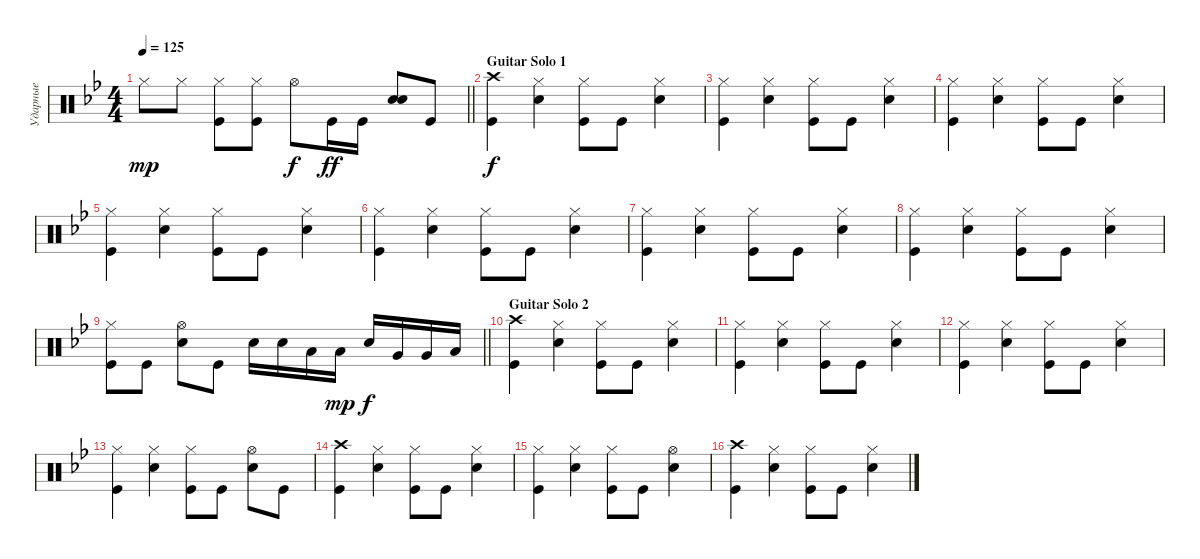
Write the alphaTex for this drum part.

\track ("Ударные" "Ударные") {instrument percussion}
\staff {score}
\articulation defaults
\ts (4 4)
\tempo 125
\clef neutral
\barLineRight lightlight
\ks gminor "Hi-Hat (closed)".8{dy mp} "Hi-Hat (closed)".8
("Hi-Hat (closed)" "Kick (hit)").8 ("Hi-Hat (closed)" "Kick (hit)").8 "Hi-Hat (open)".8{dy f} "Kick (hit)".16{dy ff} "Kick (hit)".16 ("Snare (hit) 2" "Snare (hit) 2").8{bd 240} "Kick (hit)".8 |
\section ("" "Guitar Solo 1")
("Kick (hit)" "Crash high (hit)").4{dy f} ("Hi-Hat (closed)" "Snare (hit) 2").4 ("Hi-Hat (closed)" "Kick (hit)").8 "Kick (hit)".8 ("Hi-Hat (closed)" "Snare (hit) 2").4 |
("Kick (hit)" "Hi-Hat (closed)").4 ("Hi-Hat (closed)" "Snare (hit) 2").4 ("Hi-Hat (closed)" "Kick (hit)").8 "Kick (hit)".8 ("Hi-Hat (closed)" "Snare (hit) 2").4 |
("Kick (hit)" "Hi-Hat (closed)").4 ("Hi-Hat (closed)" "Snare (hit) 2").4 ("Hi-Hat (closed)" "Kick (hit)").8 "Kick (hit)".8 ("Hi-Hat (closed)" "Snare (hit) 2").4 |
("Kick (hit)" "Hi-Hat (closed)").4 ("Hi-Hat (closed)" "Snare (hit) 2").4 ("Hi-Hat (closed)" "Kick (hit)").8 "Kick (hit)".8 ("Hi-Hat (closed)" "Snare (hit) 2").4 |
("Kick (hit)" "Hi-Hat (closed)").4 ("Hi-Hat (closed)" "Snare (hit) 2").4 ("Hi-Hat (closed)" "Kick (hit)").8 "Kick (hit)".8 ("Hi-Hat (closed)" "Snare (hit) 2").4 |
("Kick (hit)" "Hi-Hat (closed)").4 ("Hi-Hat (closed)" "Snare (hit) 2").4 ("Hi-Hat (closed)" "Kick (hit)").8 "Kick (hit)".8 ("Hi-Hat (closed)" "Snare (hit) 2").4 |
("Kick (hit)" "Hi-Hat (closed)").4 ("Hi-Hat (closed)" "Snare (hit) 2").4 ("Hi-Hat (closed)" "Kick (hit)").8 "Kick (hit)".8 ("Hi-Hat (closed)" "Snare (hit) 2").4 |
\barLineRight lightlight
("Kick (hit)" "Hi-Hat (closed)").8 "Kick (hit)".8 ("Snare (hit) 2" "Hi-Hat (open)").8 "Kick (hit)".8 "Snare (hit) 2".16 "Snare (hit) 2".16 "Low Tom (hit)".16 "Low Tom (hit)".16{dy mp} "Snare (hit) 2".16{dy f} "Very Low Tom (hit)".16 "Very Low Tom (hit)".16 "Low Floor Tom (hit)".16 |
\section ("" "Guitar Solo 2")
("Kick (hit)" "Crash high (hit)").4 ("Hi-Hat (closed)" "Snare (hit) 2").4 ("Hi-Hat (closed)" "Kick (hit)").8 "Kick (hit)".8 ("Hi-Hat (closed)" "Snare (hit) 2").4 |
("Kick (hit)" "Hi-Hat (closed)").4 ("Hi-Hat (closed)" "Snare (hit) 2").4 ("Hi-Hat (closed)" "Kick (hit)").8 "Kick (hit)".8 ("Hi-Hat (closed)" "Snare (hit) 2").4 |
("Kick (hit)" "Hi-Hat (closed)").4 ("Hi-Hat (closed)" "Snare (hit) 2").4 ("Hi-Hat (closed)" "Kick (hit)").8 "Kick (hit)".8 ("Hi-Hat (closed)" "Snare (hit) 2").4 |
("Kick (hit)" "Hi-Hat (closed)").4 ("Hi-Hat (closed)" "Snare (hit) 2").4 ("Hi-Hat (closed)" "Kick (hit)").8 "Kick (hit)".8 ("Hi-Hat (open)" "Snare (hit) 2").8 "Kick (hit)".8 |
("Kick (hit)" "Crash high (hit)").4 ("Hi-Hat (closed)" "Snare (hit) 2").4 ("Hi-Hat (closed)" "Kick (hit)").8 "Kick (hit)".8 ("Hi-Hat (closed)" "Snare (hit) 2").4 |
("Kick (hit)" "Hi-Hat (closed)").4 ("Hi-Hat (closed)" "Snare (hit) 2").4 ("Hi-Hat (closed)" "Kick (hit)").8 "Kick (hit)".8 ("Hi-Hat (open)" "Snare (hit) 2").4 |
("Kick (hit)" "Crash high (hit)").4 ("Hi-Hat (closed)" "Snare (hit) 2").4 ("Hi-Hat (closed)" "Kick (hit)").8 "Kick (hit)".8 ("Hi-Hat (closed)" "Snare (hit) 2").4
